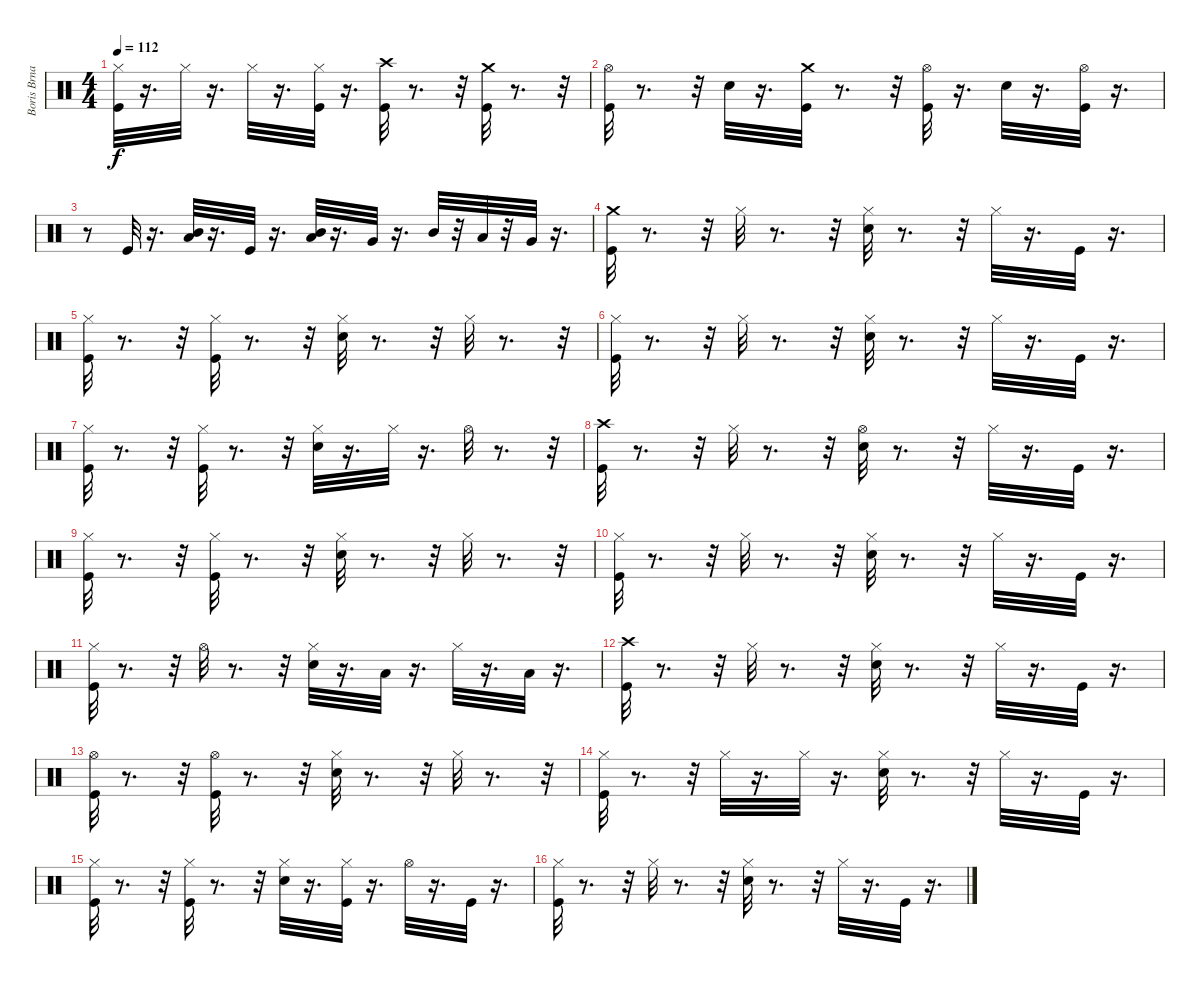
\track ("Boris Brna (Drums)" "Boris Brna") {instrument percussion}
\staff {score}
\articulation defaults
\ts (4 4)
\tempo 112
\clef neutral
\ks c
("Hi-Hat (closed)" "Kick (hit)").32{dy f} r.16{d} "Hi-Hat (closed)".32 r.16{d} "Hi-Hat (closed)".32 r.16{d} ("Kick (hit)" "Hi-Hat (closed)").32 r.16{d} ("Kick (hit)" "Crash high (hit)").32 r.8{d} r.32 ("Kick (hit)" "Crash medium (hit)").32 r.8{d} r.32 |
("Kick (hit)" "Hi-Hat (open)").32 r.8{d} r.32 "Snare (hit) 2".32 r.16{d} ("Kick (hit)" "Crash medium (hit)").32 r.8{d} r.32 ("Kick (hit)" "Hi-Hat (open)").32 r.16{d} "Snare (hit) 2".32 r.16{d} ("Kick (hit)" "Hi-Hat (open)").32 r.16{d} |
r.8 "Kick (hit)".32 r.16{d} ("Mid Tom (hit)" "Low Tom (hit)").32 r.16{d} "Kick (hit)".32 r.16{d} ("Mid Tom (hit)" "Low Tom (hit)").32 r.16{d} "Very Low Tom (hit)".32 r.16{d} "Mid Tom (hit)".32 r.32 "Low Tom (hit)".32 r.32 "Very Low Tom (hit)".32 r.16{d} |
("Kick (hit)" "Crash medium (hit)").32 r.8{d} r.32 "Hi-Hat (closed)".32 r.8{d} r.32 ("Hi-Hat (closed)" "Snare (hit) 2").32 r.8{d} r.32 "Hi-Hat (closed)".32 r.16{d} "Kick (hit)".32 r.16{d} |
("Kick (hit)" "Hi-Hat (closed)").32 r.8{d} r.32 ("Kick (hit)" "Hi-Hat (closed)").32 r.8{d} r.32 ("Snare (hit) 2" "Hi-Hat (closed)").32 r.8{d} r.32 "Hi-Hat (closed)".32 r.8{d} r.32 |
("Kick (hit)" "Hi-Hat (closed)").32 r.8{d} r.32 "Hi-Hat (closed)".32 r.8{d} r.32 ("Hi-Hat (closed)" "Snare (hit) 2").32 r.8{d} r.32 "Hi-Hat (closed)".32 r.16{d} "Kick (hit)".32 r.16{d} |
("Kick (hit)" "Hi-Hat (closed)").32 r.8{d} r.32 ("Kick (hit)" "Hi-Hat (closed)").32 r.8{d} r.32 ("Snare (hit) 2" "Hi-Hat (closed)").32 r.16{d} "Hi-Hat (closed)".32 r.16{d} "Hi-Hat (open)".32 r.8{d} r.32 |
("Kick (hit)" "Crash high (hit)").32 r.8{d} r.32 "Hi-Hat (closed)".32 r.8{d} r.32 ("Hi-Hat (open)" "Snare (hit) 2").32 r.8{d} r.32 "Hi-Hat (closed)".32 r.16{d} "Kick (hit)".32 r.16{d} |
("Kick (hit)" "Hi-Hat (closed)").32 r.8{d} r.32 ("Kick (hit)" "Hi-Hat (closed)").32 r.8{d} r.32 ("Snare (hit) 2" "Hi-Hat (closed)").32 r.8{d} r.32 "Hi-Hat (closed)".32 r.8{d} r.32 |
("Kick (hit)" "Hi-Hat (closed)").32 r.8{d} r.32 "Hi-Hat (closed)".32 r.8{d} r.32 ("Hi-Hat (closed)" "Snare (hit) 2").32 r.8{d} r.32 "Hi-Hat (closed)".32 r.16{d} "Kick (hit)".32 r.16{d} |
("Kick (hit)" "Hi-Hat (closed)").32 r.8{d} r.32 "Hi-Hat (open)".32 r.8{d} r.32 ("Snare (hit) 2" "Hi-Hat (closed)").32 r.16{d} "Low Tom (hit)".32 r.16{d} "Hi-Hat (closed)".32 r.16{d} "Low Floor Tom (hit)".32 r.16{d} |
("Kick (hit)" "Crash high (hit)").32 r.8{d} r.32 "Hi-Hat (closed)".32 r.8{d} r.32 ("Hi-Hat (closed)" "Snare (hit) 2").32 r.8{d} r.32 "Hi-Hat (closed)".32 r.16{d} "Kick (hit)".32 r.16{d} |
("Kick (hit)" "Hi-Hat (open)").32 r.8{d} r.32 ("Kick (hit)" "Hi-Hat (open)").32 r.8{d} r.32 ("Snare (hit) 2" "Hi-Hat (closed)").32 r.8{d} r.32 "Hi-Hat (closed)".32 r.8{d} r.32 |
("Kick (hit)" "Hi-Hat (closed)").32 r.8{d} r.32 "Hi-Hat (closed)".32 r.16{d} "Hi-Hat (closed)".32 r.16{d} ("Hi-Hat (closed)" "Snare (hit) 2").32 r.8{d} r.32 "Hi-Hat (closed)".32 r.16{d} "Kick (hit)".32 r.16{d} |
("Kick (hit)" "Hi-Hat (closed)").32 r.8{d} r.32 ("Kick (hit)" "Hi-Hat (closed)").32 r.8{d} r.32 ("Snare (hit) 2" "Hi-Hat (closed)").32 r.16{d} ("Hi-Hat (closed)" "Kick (hit)").32 r.16{d} "Hi-Hat (open)".32 r.16{d} "Kick (hit)".32 r.16{d} |
("Kick (hit)" "Hi-Hat (closed)").32 r.8{d} r.32 "Hi-Hat (closed)".32 r.8{d} r.32 ("Hi-Hat (closed)" "Snare (hit) 2").32 r.8{d} r.32 "Hi-Hat (closed)".32 r.16{d} "Kick (hit)".32 r.16{d}
